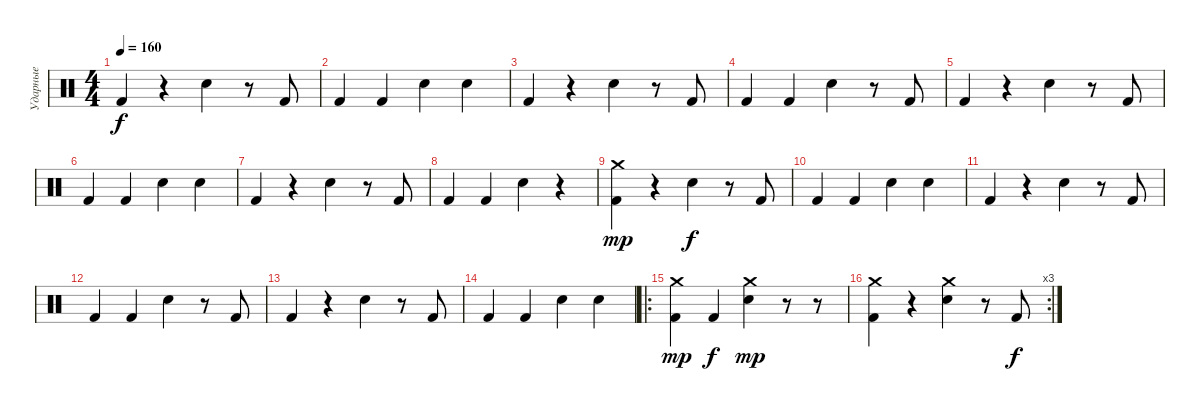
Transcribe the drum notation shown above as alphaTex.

\track ("Ударные" "Ударные") {instrument percussion}
\staff {score}
\articulation defaults
\ts (4 4)
\tempo 160
\clef neutral
\ks c "Kick (hit) 2".4{dy f}
r.4 "Electric Snare (hit)".4 r.8 "Kick (hit) 2".8 |
"Kick (hit) 2".4 "Kick (hit) 2".4 "Electric Snare (hit)".4 "Electric Snare (hit)".4 |
"Kick (hit) 2".4 r.4 "Electric Snare (hit)".4 r.8 "Kick (hit) 2".8 |
"Kick (hit) 2".4 "Kick (hit) 2".4 "Electric Snare (hit)".4 r.8 "Kick (hit) 2".8 |
"Kick (hit) 2".4 r.4 "Electric Snare (hit)".4 r.8 "Kick (hit) 2".8 |
"Kick (hit) 2".4 "Kick (hit) 2".4 "Electric Snare (hit)".4 "Electric Snare (hit)".4 |
"Kick (hit) 2".4 r.4 "Electric Snare (hit)".4 r.8 "Kick (hit) 2".8 |
"Kick (hit) 2".4 "Kick (hit) 2".4 "Electric Snare (hit)".4 r.4 |
("Kick (hit) 2" "Crash medium (hit)").4{dy mp} r.4 "Electric Snare (hit)".4{dy f} r.8 "Kick (hit) 2".8 |
"Kick (hit) 2".4 "Kick (hit) 2".4 "Electric Snare (hit)".4 "Electric Snare (hit)".4 |
"Kick (hit) 2".4 r.4 "Electric Snare (hit)".4 r.8 "Kick (hit) 2".8 |
"Kick (hit) 2".4 "Kick (hit) 2".4 "Electric Snare (hit)".4 r.8 "Kick (hit) 2".8 |
"Kick (hit) 2".4 r.4 "Electric Snare (hit)".4 r.8 "Kick (hit) 2".8 |
"Kick (hit) 2".4 "Kick (hit) 2".4 "Electric Snare (hit)".4 "Electric Snare (hit)".4 |
\ro
("Kick (hit) 2" "Crash medium (hit)").4{dy mp} "Kick (hit) 2".4{dy f} ("Electric Snare (hit)" "Crash medium (hit)").4{dy mp} r.8 r.8 |
\rc 3
("Kick (hit) 2" "Crash medium (hit)").4 r.4 ("Electric Snare (hit)" "Crash medium (hit)").4 r.8 "Kick (hit) 2".8{dy f}
